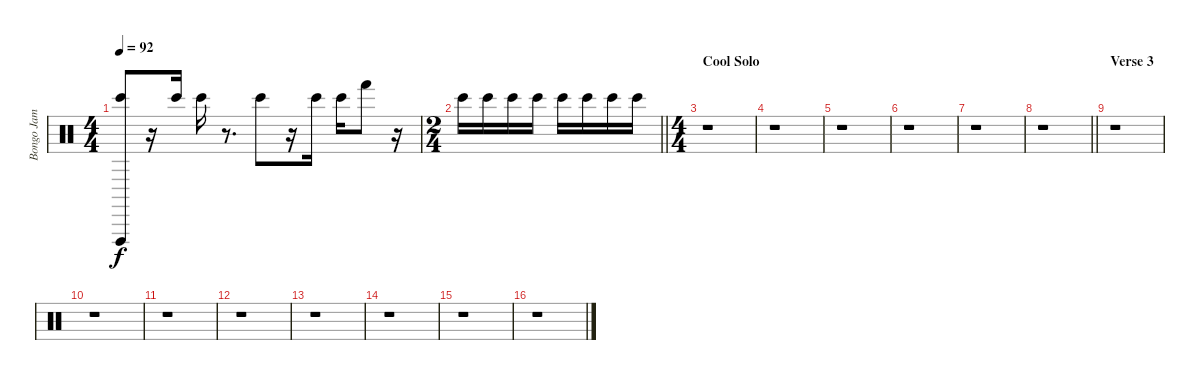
\track ("Bongo Jam and Vibraslap" "Bongo Jam ") {instrument percussion}
\staff {score}
\articulation defaults
\ts (4 4)
\tempo 92
\clef neutral
\ks c
("Bongo High (hit)" "Vibraslap (hit)").8{dy f} r.16 "Bongo High (hit)".16 "Bongo High (hit)".16 r.8{d} "Bongo High (hit)".8 r.16 "Bongo High (hit)".16 "Bongo High (hit)".16 "Hand (hit)".8 r.16 |
\ts (2 4)
\barLineRight lightlight "Bongo High (hit)".16 "Bongo High (hit)".16 "Bongo High (hit)".16 "Bongo High (hit)".16 "Bongo High (hit)".16 "Bongo High (hit)".16 "Bongo High (hit)".16 "Bongo High (hit)".16
|
\ts (4 4)
\section ("" "Cool Solo")
r.1 |
r.1 |
r.1 |
r.1 |
r.1 |
\barLineRight lightlight
r.1 |
\section ("" "Verse 3")
r.1 |
r.1 |
r.1 |
r.1 |
r.1 |
r.1 |
r.1 |
r.1
